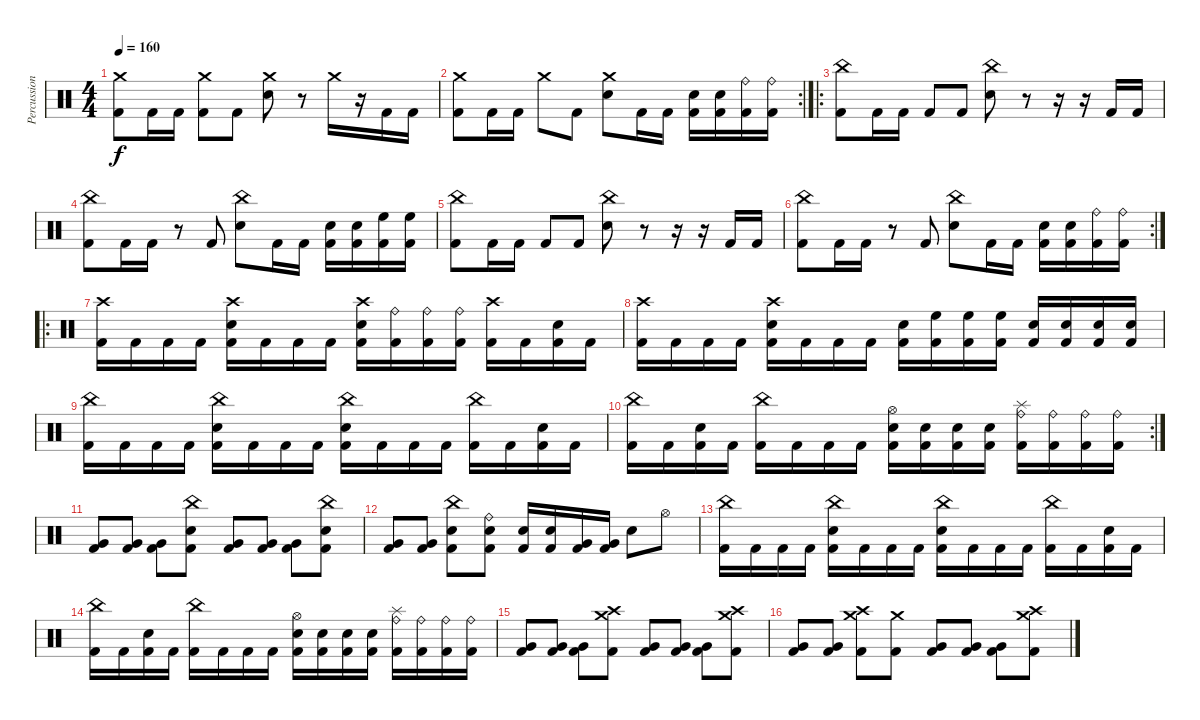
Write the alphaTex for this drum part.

\track ("Percussion" "Percussion") {instrument percussion}
\staff {score}
\articulation defaults
\ts (4 4)
\tempo 160
\clef neutral
\ks c
("Crash medium (hit)" "Kick (hit) 2").8{dy f} "Kick (hit) 2".16 "Kick (hit) 2".16 ("Crash medium (hit)" "Kick (hit) 2").8 "Kick (hit) 2".8 ("Crash medium (hit)" "Snare (hit) 2").8 r.8 "Crash medium (hit)".16 r.16 "Kick (hit) 2".16 "Kick (hit) 2".16 |
\rc 2
("Crash medium (hit)" "Kick (hit) 2").8 "Kick (hit) 2".16 "Kick (hit) 2".16 "Crash medium (hit)".8 "Kick (hit) 2".8 ("Crash medium (hit)" "Snare (hit) 2").8 "Kick (hit) 2".16 "Kick (hit) 2".16 ("Snare (hit) 2" "Kick (hit) 2").16 ("Snare (hit) 2" "Kick (hit) 2").16 ("Ride (bell)" "Kick (hit) 2").16 ("Ride (bell)" "Kick (hit) 2").16 |
\ro
("China (hit)" "Kick (hit) 2").8 "Kick (hit) 2".16 "Kick (hit) 2".16 "Kick (hit) 2".8 "Kick (hit) 2".8 ("China (hit)" "Snare (hit) 2").8 r.8 r.16 r.16 "Kick (hit) 2".16 "Kick (hit) 2".16 |
("China (hit)" "Kick (hit) 2").8 "Kick (hit) 2".16 "Kick (hit) 2".16 r.8 "Kick (hit) 2".8 ("China (hit)" "Snare (hit) 2").8 "Kick (hit) 2".16 "Kick (hit) 2".16 ("Snare (hit) 2" "Kick (hit) 2").16 ("Snare (hit) 2" "Kick (hit) 2").16 ("High Floor Tom (hit)" "Kick (hit) 2").16 ("High Floor Tom (hit)" "Kick (hit) 2").16 |
("China (hit)" "Kick (hit) 2").8 "Kick (hit) 2".16 "Kick (hit) 2".16 "Kick (hit) 2".8 "Kick (hit) 2".8 ("China (hit)" "Snare (hit) 2").8 r.8 r.16 r.16 "Kick (hit) 2".16 "Kick (hit) 2".16 |
\rc 2
("China (hit)" "Kick (hit) 2").8 "Kick (hit) 2".16 "Kick (hit) 2".16 r.8 "Kick (hit) 2".8 ("China (hit)" "Snare (hit) 2").8 "Kick (hit) 2".16 "Kick (hit) 2".16 ("Snare (hit) 2" "Kick (hit) 2").16 ("Snare (hit) 2" "Kick (hit) 2").16 ("Ride (bell)" "Kick (hit) 2").16 ("Ride (bell)" "Kick (hit) 2").16 |
\ro
("Crash high (hit)" "Kick (hit) 2").16 "Kick (hit) 2".16 "Kick (hit) 2".16 "Kick (hit) 2".16 ("Crash high (hit)" "Snare (hit) 2" "Kick (hit) 2").16 "Kick (hit) 2".16 "Kick (hit) 2".16 "Kick (hit) 2".16 ("Crash high (hit)" "Snare (hit) 2" "Kick (hit) 2").16 ("Ride (bell)" "Kick (hit) 2").16 ("Ride (bell)" "Kick (hit) 2").16 ("Ride (bell)" "Kick (hit) 2").16 ("Crash high (hit)" "Kick (hit) 2").16 "Kick (hit) 2".16 ("Snare (hit) 2" "Kick (hit) 2").16 "Kick (hit) 2".16 |
("Crash high (hit)" "Kick (hit) 2").16 "Kick (hit) 2".16 "Kick (hit) 2".16 "Kick (hit) 2".16 ("Crash high (hit)" "Snare (hit) 2" "Kick (hit) 2").16 "Kick (hit) 2".16 "Kick (hit) 2".16 "Kick (hit) 2".16 ("Snare (hit) 2" "Kick (hit) 2").16 ("High Floor Tom (hit)" "Kick (hit) 2").16 ("High Floor Tom (hit)" "Kick (hit) 2").16 ("High Floor Tom (hit)" "Kick (hit) 2").16 ("Snare (hit) 2" "Kick (hit) 2").16 ("Snare (hit) 2" "Kick (hit) 2").16 ("Snare (hit) 2" "Kick (hit) 2").16 ("Snare (hit) 2" "Kick (hit) 2").16 |
("China (hit)" "Kick (hit) 2").16 "Kick (hit) 2".16 "Kick (hit) 2".16 "Kick (hit) 2".16 ("China (hit)" "Snare (hit) 2" "Kick (hit) 2").16 "Kick (hit) 2".16 "Kick (hit) 2".16 "Kick (hit) 2".16 ("China (hit)" "Snare (hit) 2" "Kick (hit) 2").16 "Kick (hit) 2".16 "Kick (hit) 2".16 "Kick (hit) 2".16 ("China (hit)" "Kick (hit) 2").16 "Kick (hit) 2".16 ("Snare (hit) 2" "Kick (hit) 2").16 "Kick (hit) 2".16 |
\rc 2
("China (hit)" "Kick (hit) 2").16 "Kick (hit) 2".16 ("Snare (hit) 2" "Kick (hit) 2").16 "Kick (hit) 2".16 ("China (hit)" "Kick (hit) 2").16 "Kick (hit) 2".16 "Kick (hit) 2".16 "Kick (hit) 2".16 ("Hi-Hat (open)" "Snare (hit) 2" "Kick (hit) 2").16 ("Snare (hit) 2" "Kick (hit) 2").16 ("Snare (hit) 2" "Kick (hit) 2").16 ("Snare (hit) 2" "Kick (hit) 2").16 ("Splash (hit)" "Ride (bell)" "Kick (hit) 2").16 ("Ride (bell)" "Kick (hit) 2").16 ("Ride (bell)" "Kick (hit) 2").16 ("Ride (bell)" "Kick (hit) 2").16 |
("Very Low Tom (hit)" "Kick (hit) 2").8 ("Very Low Tom (hit)" "Kick (hit) 2").8 ("Very Low Tom (hit)" "Kick (hit) 2").8 ("China (hit)" "Snare (hit) 2" "Kick (hit) 2").8 ("Very Low Tom (hit)" "Kick (hit) 2").8 ("Very Low Tom (hit)" "Kick (hit) 2").8 ("Very Low Tom (hit)" "Kick (hit) 2").8 ("China (hit)" "Snare (hit) 2" "Kick (hit) 2").8 |
("Very Low Tom (hit)" "Kick (hit) 2").8 ("Very Low Tom (hit)" "Kick (hit) 2").8 ("China (hit)" "Snare (hit) 2" "Kick (hit) 2").8 ("Ride (bell)" "Snare (hit) 2" "Kick (hit) 2").8 ("Snare (hit) 2" "Kick (hit) 2").16 ("Snare (hit) 2" "Kick (hit) 2").16 ("Very Low Tom (hit)" "Kick (hit) 2").16 ("Very Low Tom (hit)" "Kick (hit) 2").16 "Snare (hit) 2".8 "Hi-Hat (open)".8 |
("China (hit)" "Kick (hit) 2").16 "Kick (hit) 2".16 "Kick (hit) 2".16 "Kick (hit) 2".16 ("China (hit)" "Snare (hit) 2" "Kick (hit) 2").16 "Kick (hit) 2".16 "Kick (hit) 2".16 "Kick (hit) 2".16 ("China (hit)" "Snare (hit) 2" "Kick (hit) 2").16 "Kick (hit) 2".16 "Kick (hit) 2".16 "Kick (hit) 2".16 ("China (hit)" "Kick (hit) 2").16 "Kick (hit) 2".16 ("Snare (hit) 2" "Kick (hit) 2").16 "Kick (hit) 2".16 |
("China (hit)" "Kick (hit) 2").16 "Kick (hit) 2".16 ("Snare (hit) 2" "Kick (hit) 2").16 "Kick (hit) 2".16 ("China (hit)" "Kick (hit) 2").16 "Kick (hit) 2".16 "Kick (hit) 2".16 "Kick (hit) 2".16 ("Hi-Hat (open)" "Snare (hit) 2" "Kick (hit) 2").16 ("Snare (hit) 2" "Kick (hit) 2").16 ("Snare (hit) 2" "Kick (hit) 2").16 ("Snare (hit) 2" "Kick (hit) 2").16 ("Splash (hit)" "Ride (bell)" "Kick (hit) 2").16 ("Ride (bell)" "Kick (hit) 2").16 ("Ride (bell)" "Kick (hit) 2").16 ("Ride (bell)" "Kick (hit) 2").16 |
("Very Low Tom (hit)" "Kick (hit) 2").8 ("Very Low Tom (hit)" "Kick (hit) 2").8 ("Very Low Tom (hit)" "Kick (hit) 2").8 ("Crash high (hit)" "Crash medium (hit)" "Kick (hit) 2").8 ("Very Low Tom (hit)" "Kick (hit) 2").8 ("Very Low Tom (hit)" "Kick (hit) 2").8 ("Very Low Tom (hit)" "Kick (hit) 2").8 ("Crash high (hit)" "Crash medium (hit)" "Kick (hit) 2").8 |
("Very Low Tom (hit)" "Kick (hit) 2").8 ("Very Low Tom (hit)" "Kick (hit) 2").8 ("Crash high (hit)" "Crash medium (hit)" "Kick (hit) 2").8 ("Crash medium (hit)" "Kick (hit) 2").8 ("Very Low Tom (hit)" "Kick (hit) 2").8 ("Very Low Tom (hit)" "Kick (hit) 2").8 ("Very Low Tom (hit)" "Kick (hit) 2").8 ("Crash high (hit)" "Crash medium (hit)" "Kick (hit) 2").8
